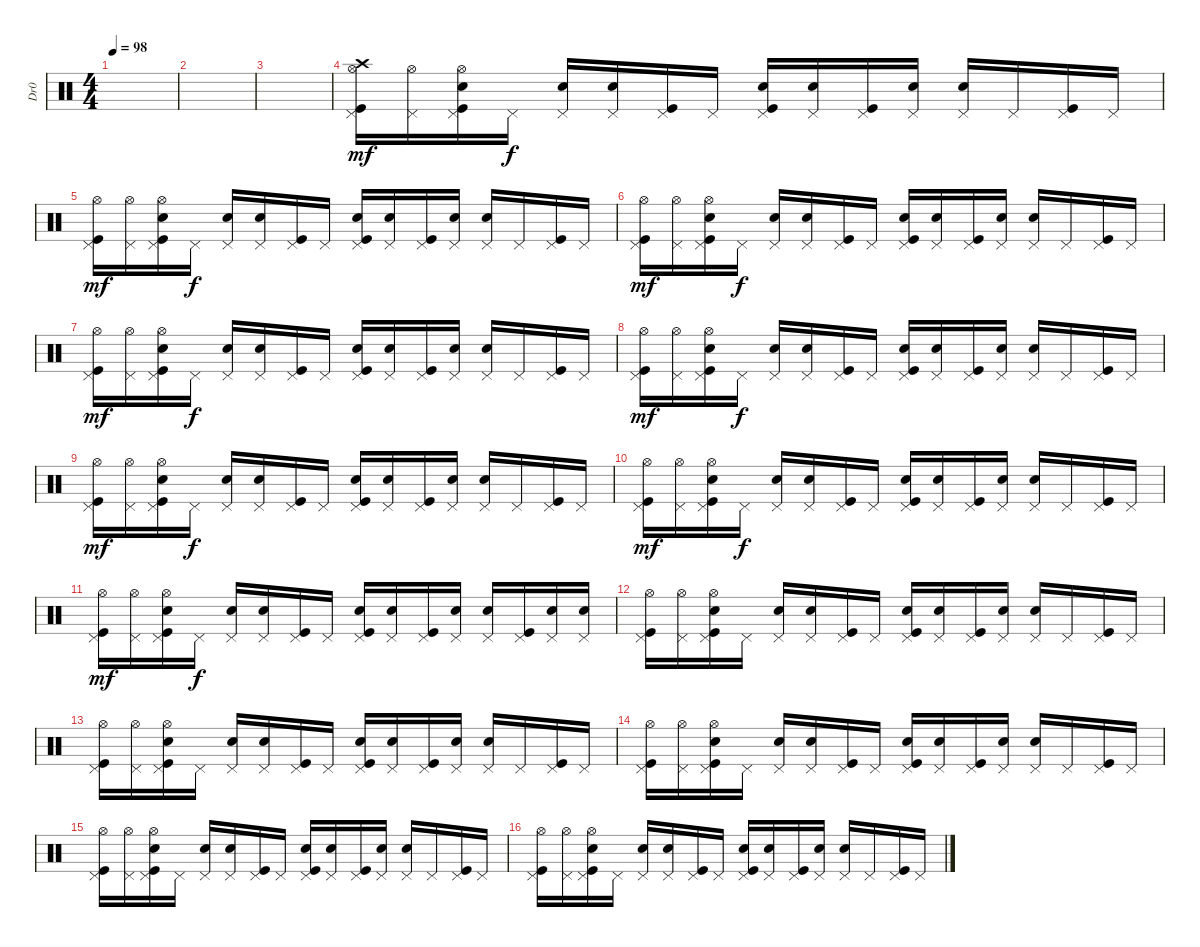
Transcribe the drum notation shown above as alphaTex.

\track ("Dr0" "Dr0") {instrument percussion}
\staff {score}
\articulation defaults
\ts (4 4)
\tempo 98
\clef neutral
\ks c
|
|
|
("Kick (hit)" "Pedal Hi-Hat (hit)" "Crash high (hit)" "Hi-Hat (open)").16{dy mf} ("Pedal Hi-Hat (hit)" "Hi-Hat (open)").16 ("Kick (hit)" "Pedal Hi-Hat (hit)" "Hand Clap (hit)" "Hi-Hat (open)").16 "Pedal Hi-Hat (hit)".16{dy f} ("Pedal Hi-Hat (hit)" "Snare (hit) 2").16 ("Pedal Hi-Hat (hit)" "Hand Clap (hit)").16 ("Kick (hit)" "Pedal Hi-Hat (hit)").16 "Pedal Hi-Hat (hit)".16 ("Kick (hit)" "Pedal Hi-Hat (hit)" "Hand Clap (hit)").16 ("Pedal Hi-Hat (hit)" "Snare (hit) 2").16 ("Kick (hit)" "Pedal Hi-Hat (hit)").16 ("Pedal Hi-Hat (hit)" "Hand Clap (hit)").16 ("Pedal Hi-Hat (hit)" "Snare (hit) 2").16 "Pedal Hi-Hat (hit)".16 ("Kick (hit)" "Pedal Hi-Hat (hit)").16 "Pedal Hi-Hat (hit)".16 |
("Kick (hit)" "Pedal Hi-Hat (hit)" "Hi-Hat (open)").16{dy mf} ("Pedal Hi-Hat (hit)" "Hi-Hat (open)").16 ("Kick (hit)" "Pedal Hi-Hat (hit)" "Hand Clap (hit)" "Hi-Hat (open)").16 "Pedal Hi-Hat (hit)".16{dy f} ("Pedal Hi-Hat (hit)" "Snare (hit) 2").16 ("Pedal Hi-Hat (hit)" "Hand Clap (hit)").16 ("Kick (hit)" "Pedal Hi-Hat (hit)").16 "Pedal Hi-Hat (hit)".16 ("Kick (hit)" "Pedal Hi-Hat (hit)" "Hand Clap (hit)").16 ("Pedal Hi-Hat (hit)" "Snare (hit) 2").16 ("Kick (hit)" "Pedal Hi-Hat (hit)").16 ("Pedal Hi-Hat (hit)" "Hand Clap (hit)").16 ("Pedal Hi-Hat (hit)" "Snare (hit) 2").16 "Pedal Hi-Hat (hit)".16 ("Kick (hit)" "Pedal Hi-Hat (hit)").16 "Pedal Hi-Hat (hit)".16 |
("Kick (hit)" "Pedal Hi-Hat (hit)" "Hi-Hat (open)").16{dy mf} ("Pedal Hi-Hat (hit)" "Hi-Hat (open)").16 ("Kick (hit)" "Pedal Hi-Hat (hit)" "Hand Clap (hit)" "Hi-Hat (open)").16 "Pedal Hi-Hat (hit)".16{dy f} ("Pedal Hi-Hat (hit)" "Snare (hit) 2").16 ("Pedal Hi-Hat (hit)" "Hand Clap (hit)").16 ("Kick (hit)" "Pedal Hi-Hat (hit)").16 "Pedal Hi-Hat (hit)".16 ("Kick (hit)" "Pedal Hi-Hat (hit)" "Hand Clap (hit)").16 ("Pedal Hi-Hat (hit)" "Snare (hit) 2").16 ("Kick (hit)" "Pedal Hi-Hat (hit)").16 ("Pedal Hi-Hat (hit)" "Hand Clap (hit)").16 ("Pedal Hi-Hat (hit)" "Snare (hit) 2").16 "Pedal Hi-Hat (hit)".16 ("Kick (hit)" "Pedal Hi-Hat (hit)").16 "Pedal Hi-Hat (hit)".16 |
("Kick (hit)" "Pedal Hi-Hat (hit)" "Hi-Hat (open)").16{dy mf} ("Pedal Hi-Hat (hit)" "Hi-Hat (open)").16 ("Kick (hit)" "Pedal Hi-Hat (hit)" "Hand Clap (hit)" "Hi-Hat (open)").16 "Pedal Hi-Hat (hit)".16{dy f} ("Pedal Hi-Hat (hit)" "Snare (hit) 2").16 ("Pedal Hi-Hat (hit)" "Hand Clap (hit)").16 ("Kick (hit)" "Pedal Hi-Hat (hit)").16 "Pedal Hi-Hat (hit)".16 ("Kick (hit)" "Pedal Hi-Hat (hit)" "Hand Clap (hit)").16 ("Pedal Hi-Hat (hit)" "Snare (hit) 2").16 ("Kick (hit)" "Pedal Hi-Hat (hit)").16 ("Pedal Hi-Hat (hit)" "Hand Clap (hit)").16 ("Pedal Hi-Hat (hit)" "Snare (hit) 2").16 "Pedal Hi-Hat (hit)".16 ("Kick (hit)" "Pedal Hi-Hat (hit)").16 "Pedal Hi-Hat (hit)".16 |
("Kick (hit)" "Pedal Hi-Hat (hit)" "Hi-Hat (open)").16{dy mf} ("Pedal Hi-Hat (hit)" "Hi-Hat (open)").16 ("Kick (hit)" "Pedal Hi-Hat (hit)" "Hand Clap (hit)" "Hi-Hat (open)").16 "Pedal Hi-Hat (hit)".16{dy f} ("Pedal Hi-Hat (hit)" "Snare (hit) 2").16 ("Pedal Hi-Hat (hit)" "Hand Clap (hit)").16 ("Kick (hit)" "Pedal Hi-Hat (hit)").16 "Pedal Hi-Hat (hit)".16 ("Kick (hit)" "Pedal Hi-Hat (hit)" "Hand Clap (hit)").16 ("Pedal Hi-Hat (hit)" "Snare (hit) 2").16 ("Kick (hit)" "Pedal Hi-Hat (hit)").16 ("Pedal Hi-Hat (hit)" "Hand Clap (hit)").16 ("Pedal Hi-Hat (hit)" "Snare (hit) 2").16 "Pedal Hi-Hat (hit)".16 ("Kick (hit)" "Pedal Hi-Hat (hit)").16 "Pedal Hi-Hat (hit)".16 |
("Kick (hit)" "Pedal Hi-Hat (hit)" "Hi-Hat (open)").16{dy mf} ("Pedal Hi-Hat (hit)" "Hi-Hat (open)").16 ("Kick (hit)" "Pedal Hi-Hat (hit)" "Hand Clap (hit)" "Hi-Hat (open)").16 "Pedal Hi-Hat (hit)".16{dy f} ("Pedal Hi-Hat (hit)" "Snare (hit) 2").16 ("Pedal Hi-Hat (hit)" "Hand Clap (hit)").16 ("Kick (hit)" "Pedal Hi-Hat (hit)").16 "Pedal Hi-Hat (hit)".16 ("Kick (hit)" "Pedal Hi-Hat (hit)" "Hand Clap (hit)").16 ("Pedal Hi-Hat (hit)" "Snare (hit) 2").16 ("Kick (hit)" "Pedal Hi-Hat (hit)").16 ("Pedal Hi-Hat (hit)" "Hand Clap (hit)").16 ("Pedal Hi-Hat (hit)" "Snare (hit) 2").16 "Pedal Hi-Hat (hit)".16 ("Kick (hit)" "Pedal Hi-Hat (hit)").16 "Pedal Hi-Hat (hit)".16 |
("Kick (hit)" "Pedal Hi-Hat (hit)" "Hi-Hat (open)").16{dy mf} ("Pedal Hi-Hat (hit)" "Hi-Hat (open)").16 ("Kick (hit)" "Pedal Hi-Hat (hit)" "Hand Clap (hit)" "Hi-Hat (open)").16 "Pedal Hi-Hat (hit)".16{dy f} ("Pedal Hi-Hat (hit)" "Snare (hit) 2").16 ("Pedal Hi-Hat (hit)" "Hand Clap (hit)").16 ("Kick (hit)" "Pedal Hi-Hat (hit)").16 "Pedal Hi-Hat (hit)".16 ("Kick (hit)" "Pedal Hi-Hat (hit)" "Hand Clap (hit)").16 ("Pedal Hi-Hat (hit)" "Snare (hit) 2").16 ("Kick (hit)" "Pedal Hi-Hat (hit)").16 ("Pedal Hi-Hat (hit)" "Hand Clap (hit)").16 ("Pedal Hi-Hat (hit)" "Snare (hit) 2").16 "Pedal Hi-Hat (hit)".16 ("Kick (hit)" "Pedal Hi-Hat (hit)").16 "Pedal Hi-Hat (hit)".16 |
("Kick (hit)" "Pedal Hi-Hat (hit)" "Hi-Hat (open)").16{dy mf} ("Pedal Hi-Hat (hit)" "Hi-Hat (open)").16 ("Kick (hit)" "Pedal Hi-Hat (hit)" "Hand Clap (hit)" "Hi-Hat (open)").16 "Pedal Hi-Hat (hit)".16{dy f} ("Pedal Hi-Hat (hit)" "Snare (hit) 2").16 ("Pedal Hi-Hat (hit)" "Hand Clap (hit)").16 ("Kick (hit)" "Pedal Hi-Hat (hit)").16 "Pedal Hi-Hat (hit)".16 ("Kick (hit)" "Pedal Hi-Hat (hit)" "Hand Clap (hit)").16 ("Pedal Hi-Hat (hit)" "Snare (hit) 2").16 ("Kick (hit)" "Pedal Hi-Hat (hit)").16 ("Pedal Hi-Hat (hit)" "Hand Clap (hit)").16 ("Pedal Hi-Hat (hit)" "Snare (hit) 2").16 ("Kick (hit)" "Pedal Hi-Hat (hit)").16 ("Pedal Hi-Hat (hit)" "Snare (hit) 2").16 ("Pedal Hi-Hat (hit)" "Snare (hit) 2").16 |
("Kick (hit)" "Pedal Hi-Hat (hit)" "Hi-Hat (open)").16 ("Pedal Hi-Hat (hit)" "Hi-Hat (open)").16 ("Kick (hit)" "Pedal Hi-Hat (hit)" "Hand Clap (hit)" "Hi-Hat (open)").16 "Pedal Hi-Hat (hit)".16 ("Pedal Hi-Hat (hit)" "Snare (hit) 2").16 ("Pedal Hi-Hat (hit)" "Hand Clap (hit)").16 ("Kick (hit)" "Pedal Hi-Hat (hit)").16 "Pedal Hi-Hat (hit)".16 ("Kick (hit)" "Pedal Hi-Hat (hit)" "Hand Clap (hit)").16 ("Pedal Hi-Hat (hit)" "Snare (hit) 2").16 ("Kick (hit)" "Pedal Hi-Hat (hit)").16 ("Pedal Hi-Hat (hit)" "Hand Clap (hit)").16 ("Pedal Hi-Hat (hit)" "Snare (hit) 2").16 "Pedal Hi-Hat (hit)".16 ("Kick (hit)" "Pedal Hi-Hat (hit)").16 "Pedal Hi-Hat (hit)".16 |
("Kick (hit)" "Pedal Hi-Hat (hit)" "Hi-Hat (open)").16 ("Pedal Hi-Hat (hit)" "Hi-Hat (open)").16 ("Kick (hit)" "Pedal Hi-Hat (hit)" "Hand Clap (hit)" "Hi-Hat (open)").16 "Pedal Hi-Hat (hit)".16 ("Pedal Hi-Hat (hit)" "Snare (hit) 2").16 ("Pedal Hi-Hat (hit)" "Hand Clap (hit)").16 ("Kick (hit)" "Pedal Hi-Hat (hit)").16 "Pedal Hi-Hat (hit)".16 ("Kick (hit)" "Pedal Hi-Hat (hit)" "Hand Clap (hit)").16 ("Pedal Hi-Hat (hit)" "Snare (hit) 2").16 ("Kick (hit)" "Pedal Hi-Hat (hit)").16 ("Pedal Hi-Hat (hit)" "Hand Clap (hit)").16 ("Pedal Hi-Hat (hit)" "Snare (hit) 2").16 "Pedal Hi-Hat (hit)".16 ("Kick (hit)" "Pedal Hi-Hat (hit)").16 "Pedal Hi-Hat (hit)".16 |
("Kick (hit)" "Pedal Hi-Hat (hit)" "Hi-Hat (open)").16 ("Pedal Hi-Hat (hit)" "Hi-Hat (open)").16 ("Kick (hit)" "Pedal Hi-Hat (hit)" "Hand Clap (hit)" "Hi-Hat (open)").16 "Pedal Hi-Hat (hit)".16 ("Pedal Hi-Hat (hit)" "Snare (hit) 2").16 ("Pedal Hi-Hat (hit)" "Hand Clap (hit)").16 ("Kick (hit)" "Pedal Hi-Hat (hit)").16 "Pedal Hi-Hat (hit)".16 ("Kick (hit)" "Pedal Hi-Hat (hit)" "Hand Clap (hit)").16 ("Pedal Hi-Hat (hit)" "Snare (hit) 2").16 ("Kick (hit)" "Pedal Hi-Hat (hit)").16 ("Pedal Hi-Hat (hit)" "Hand Clap (hit)").16 ("Pedal Hi-Hat (hit)" "Snare (hit) 2").16 "Pedal Hi-Hat (hit)".16 ("Kick (hit)" "Pedal Hi-Hat (hit)").16 "Pedal Hi-Hat (hit)".16 |
("Kick (hit)" "Pedal Hi-Hat (hit)" "Hi-Hat (open)").16 ("Pedal Hi-Hat (hit)" "Hi-Hat (open)").16 ("Kick (hit)" "Pedal Hi-Hat (hit)" "Hand Clap (hit)" "Hi-Hat (open)").16 "Pedal Hi-Hat (hit)".16 ("Pedal Hi-Hat (hit)" "Snare (hit) 2").16 ("Pedal Hi-Hat (hit)" "Hand Clap (hit)").16 ("Kick (hit)" "Pedal Hi-Hat (hit)").16 "Pedal Hi-Hat (hit)".16 ("Kick (hit)" "Pedal Hi-Hat (hit)" "Hand Clap (hit)").16 ("Pedal Hi-Hat (hit)" "Snare (hit) 2").16 ("Kick (hit)" "Pedal Hi-Hat (hit)").16 ("Pedal Hi-Hat (hit)" "Hand Clap (hit)").16 ("Pedal Hi-Hat (hit)" "Snare (hit) 2").16 "Pedal Hi-Hat (hit)".16 ("Kick (hit)" "Pedal Hi-Hat (hit)").16 "Pedal Hi-Hat (hit)".16 |
("Kick (hit)" "Pedal Hi-Hat (hit)" "Hi-Hat (open)").16 ("Pedal Hi-Hat (hit)" "Hi-Hat (open)").16 ("Kick (hit)" "Pedal Hi-Hat (hit)" "Hand Clap (hit)" "Hi-Hat (open)").16 "Pedal Hi-Hat (hit)".16 ("Pedal Hi-Hat (hit)" "Snare (hit) 2").16 ("Pedal Hi-Hat (hit)" "Hand Clap (hit)").16 ("Kick (hit)" "Pedal Hi-Hat (hit)").16 "Pedal Hi-Hat (hit)".16 ("Kick (hit)" "Pedal Hi-Hat (hit)" "Hand Clap (hit)").16 ("Pedal Hi-Hat (hit)" "Snare (hit) 2").16 ("Kick (hit)" "Pedal Hi-Hat (hit)").16 ("Pedal Hi-Hat (hit)" "Hand Clap (hit)").16 ("Pedal Hi-Hat (hit)" "Snare (hit) 2").16 "Pedal Hi-Hat (hit)".16 ("Kick (hit)" "Pedal Hi-Hat (hit)").16 "Pedal Hi-Hat (hit)".16
